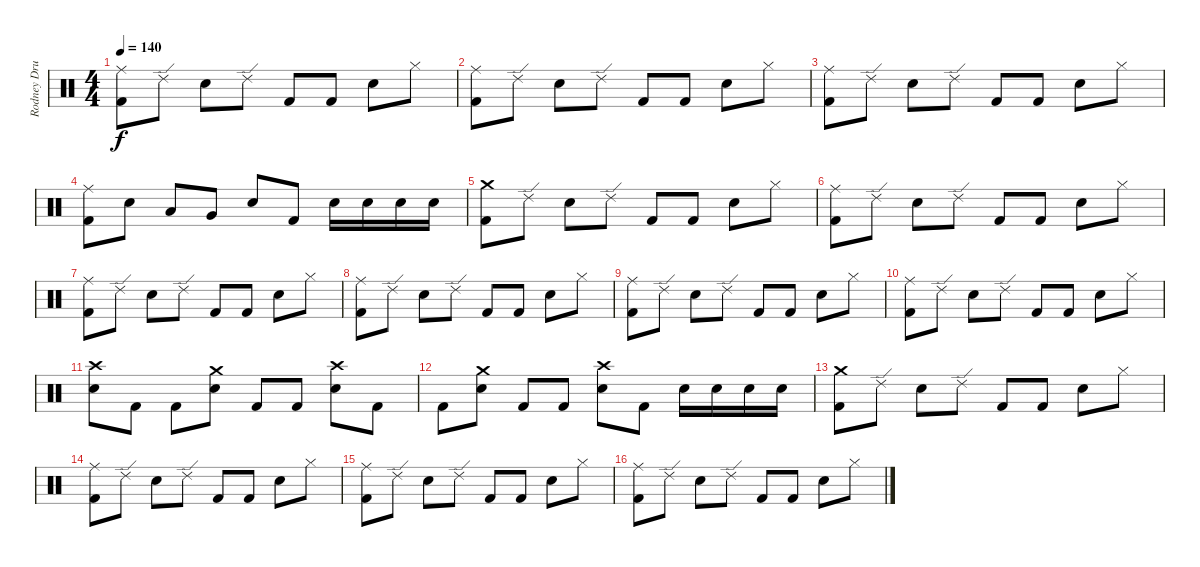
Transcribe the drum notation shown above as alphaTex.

\track ("Rodney Drums" "Rodney Dru") {instrument percussion}
\staff {score}
\articulation defaults
\ts (4 4)
\tempo 140
\clef neutral
\ks c
("Ride (middle)" "Kick (hit) 2").8{dy f} "Ride (edge) 2".8 "Electric Snare (hit)".8 "Ride (edge) 2".8 "Kick (hit) 2".8 "Kick (hit) 2".8 "Electric Snare (hit)".8 "Hi-Hat (closed)".8 |
("Ride (middle)" "Kick (hit) 2").8 "Ride (edge) 2".8 "Electric Snare (hit)".8 "Ride (edge) 2".8 "Kick (hit) 2".8 "Kick (hit) 2".8 "Electric Snare (hit)".8 "Hi-Hat (closed)".8 |
("Ride (middle)" "Kick (hit) 2").8 "Ride (edge) 2".8 "Electric Snare (hit)".8 "Ride (edge) 2".8 "Kick (hit) 2".8 "Kick (hit) 2".8 "Electric Snare (hit)".8 "Hi-Hat (closed)".8 |
("Ride (middle)" "Kick (hit) 2").8 "Electric Snare (hit)".8 "Low Tom (hit)".8 "Very Low Tom (hit)".8 "Electric Snare (hit)".8 "Kick (hit) 2".8 "Electric Snare (hit)".16 "Electric Snare (hit)".16 "Electric Snare (hit)".16 "Electric Snare (hit)".16 |
("Crash medium (hit)" "Kick (hit) 2").8 "Ride (edge) 2".8 "Electric Snare (hit)".8 "Ride (edge) 2".8 "Kick (hit) 2".8 "Kick (hit) 2".8 "Electric Snare (hit)".8 "Hi-Hat (closed)".8 |
("Ride (middle)" "Kick (hit) 2").8 "Ride (edge) 2".8 "Electric Snare (hit)".8 "Ride (edge) 2".8 "Kick (hit) 2".8 "Kick (hit) 2".8 "Electric Snare (hit)".8 "Hi-Hat (closed)".8 |
("Ride (middle)" "Kick (hit) 2").8 "Ride (edge) 2".8 "Electric Snare (hit)".8 "Ride (edge) 2".8 "Kick (hit) 2".8 "Kick (hit) 2".8 "Electric Snare (hit)".8 "Hi-Hat (closed)".8 |
("Ride (middle)" "Kick (hit) 2").8 "Ride (edge) 2".8 "Electric Snare (hit)".8 "Ride (edge) 2".8 "Kick (hit) 2".8 "Kick (hit) 2".8 "Electric Snare (hit)".8 "Hi-Hat (closed)".8 |
("Ride (middle)" "Kick (hit) 2").8 "Ride (edge) 2".8 "Electric Snare (hit)".8 "Ride (edge) 2".8 "Kick (hit) 2".8 "Kick (hit) 2".8 "Electric Snare (hit)".8 "Hi-Hat (closed)".8 |
("Ride (middle)" "Kick (hit) 2").8 "Ride (edge) 2".8 "Electric Snare (hit)".8 "Ride (edge) 2".8 "Kick (hit) 2".8 "Kick (hit) 2".8 "Electric Snare (hit)".8 "Hi-Hat (closed)".8 |
("Crash high (hit)" "Electric Snare (hit)").8 "Kick (hit) 2".8 "Kick (hit) 2".8 ("Crash medium (hit)" "Electric Snare (hit)").8 "Kick (hit) 2".8 "Kick (hit) 2".8 ("Crash high (hit)" "Electric Snare (hit)").8 "Kick (hit) 2".8 |
"Kick (hit) 2".8 ("Crash medium (hit)" "Electric Snare (hit)").8 "Kick (hit) 2".8 "Kick (hit) 2".8 ("Crash high (hit)" "Electric Snare (hit)").8 "Kick (hit) 2".8 "Electric Snare (hit)".16 "Electric Snare (hit)".16 "Electric Snare (hit)".16 "Electric Snare (hit)".16 |
("Crash medium (hit)" "Kick (hit) 2").8 "Ride (edge) 2".8 "Electric Snare (hit)".8 "Ride (edge) 2".8 "Kick (hit) 2".8 "Kick (hit) 2".8 "Electric Snare (hit)".8 "Hi-Hat (closed)".8 |
("Ride (middle)" "Kick (hit) 2").8 "Ride (edge) 2".8 "Electric Snare (hit)".8 "Ride (edge) 2".8 "Kick (hit) 2".8 "Kick (hit) 2".8 "Electric Snare (hit)".8 "Hi-Hat (closed)".8 |
("Ride (middle)" "Kick (hit) 2").8 "Ride (edge) 2".8 "Electric Snare (hit)".8 "Ride (edge) 2".8 "Kick (hit) 2".8 "Kick (hit) 2".8 "Electric Snare (hit)".8 "Hi-Hat (closed)".8 |
("Ride (middle)" "Kick (hit) 2").8 "Ride (edge) 2".8 "Electric Snare (hit)".8 "Ride (edge) 2".8 "Kick (hit) 2".8 "Kick (hit) 2".8 "Electric Snare (hit)".8 "Hi-Hat (closed)".8
